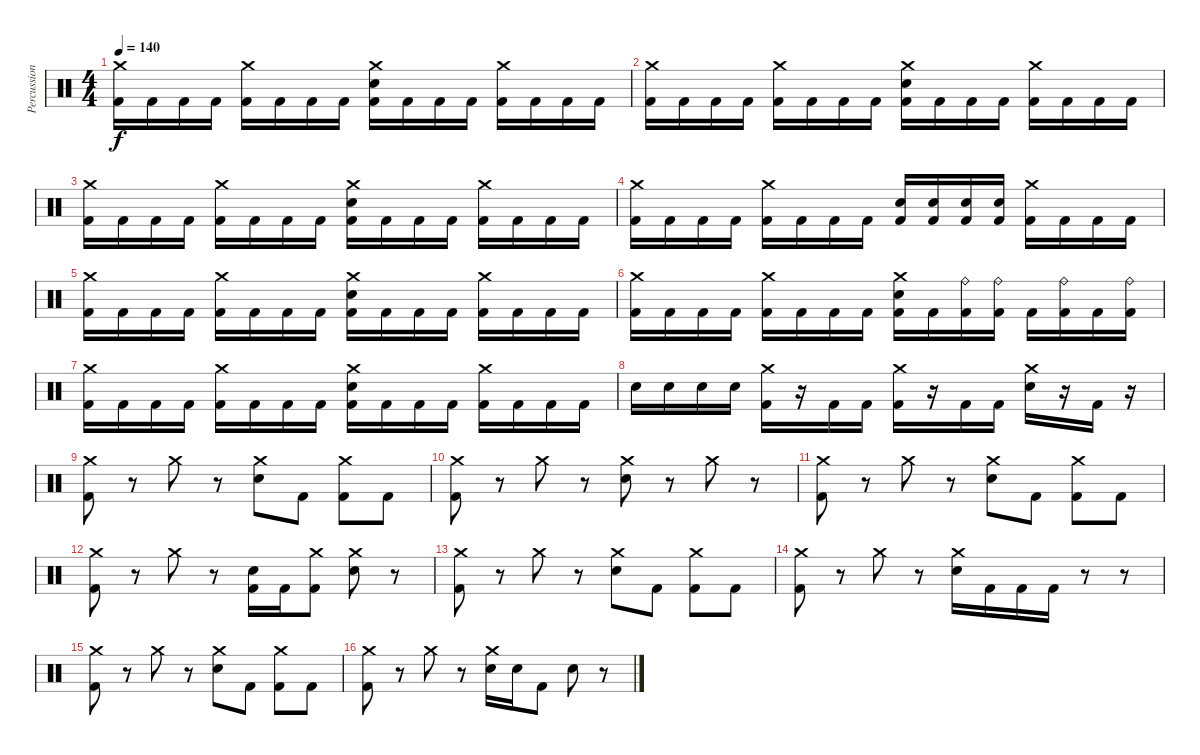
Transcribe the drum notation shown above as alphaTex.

\track ("Percussion" "Percussion") {instrument percussion}
\staff {score}
\articulation defaults
\ts (4 4)
\tempo 140
\clef neutral
\ks c
("Crash medium (hit)" "Kick (hit) 2").16{dy f} "Kick (hit) 2".16 "Kick (hit) 2".16 "Kick (hit) 2".16 ("Crash medium (hit)" "Kick (hit) 2").16 "Kick (hit) 2".16 "Kick (hit) 2".16 "Kick (hit) 2".16 ("Crash medium (hit)" "Electric Snare (hit)" "Kick (hit) 2").16 "Kick (hit) 2".16 "Kick (hit) 2".16 "Kick (hit) 2".16 ("Crash medium (hit)" "Kick (hit) 2").16 "Kick (hit) 2".16 "Kick (hit) 2".16 "Kick (hit) 2".16 |
("Crash medium (hit)" "Kick (hit) 2").16 "Kick (hit) 2".16 "Kick (hit) 2".16 "Kick (hit) 2".16 ("Crash medium (hit)" "Kick (hit) 2").16 "Kick (hit) 2".16 "Kick (hit) 2".16 "Kick (hit) 2".16 ("Crash medium (hit)" "Electric Snare (hit)" "Kick (hit) 2").16 "Kick (hit) 2".16 "Kick (hit) 2".16 "Kick (hit) 2".16 ("Crash medium (hit)" "Kick (hit) 2").16 "Kick (hit) 2".16 "Kick (hit) 2".16 "Kick (hit) 2".16 |
("Crash medium (hit)" "Kick (hit) 2").16 "Kick (hit) 2".16 "Kick (hit) 2".16 "Kick (hit) 2".16 ("Crash medium (hit)" "Kick (hit) 2").16 "Kick (hit) 2".16 "Kick (hit) 2".16 "Kick (hit) 2".16 ("Crash medium (hit)" "Electric Snare (hit)" "Kick (hit) 2").16 "Kick (hit) 2".16 "Kick (hit) 2".16 "Kick (hit) 2".16 ("Crash medium (hit)" "Kick (hit) 2").16 "Kick (hit) 2".16 "Kick (hit) 2".16 "Kick (hit) 2".16 |
("Crash medium (hit)" "Kick (hit) 2").16 "Kick (hit) 2".16 "Kick (hit) 2".16 "Kick (hit) 2".16 ("Crash medium (hit)" "Kick (hit) 2").16 "Kick (hit) 2".16 "Kick (hit) 2".16 "Kick (hit) 2".16 ("Electric Snare (hit)" "Kick (hit) 2").16 ("Electric Snare (hit)" "Kick (hit) 2").16 ("Electric Snare (hit)" "Kick (hit) 2").16 ("Electric Snare (hit)" "Kick (hit) 2").16 ("Crash medium (hit)" "Kick (hit) 2").16 "Kick (hit) 2".16 "Kick (hit) 2".16 "Kick (hit) 2".16 |
("Crash medium (hit)" "Kick (hit) 2").16 "Kick (hit) 2".16 "Kick (hit) 2".16 "Kick (hit) 2".16 ("Crash medium (hit)" "Kick (hit) 2").16 "Kick (hit) 2".16 "Kick (hit) 2".16 "Kick (hit) 2".16 ("Crash medium (hit)" "Electric Snare (hit)" "Kick (hit) 2").16 "Kick (hit) 2".16 "Kick (hit) 2".16 "Kick (hit) 2".16 ("Crash medium (hit)" "Kick (hit) 2").16 "Kick (hit) 2".16 "Kick (hit) 2".16 "Kick (hit) 2".16 |
("Crash medium (hit)" "Kick (hit) 2").16 "Kick (hit) 2".16 "Kick (hit) 2".16 "Kick (hit) 2".16 ("Crash medium (hit)" "Kick (hit) 2").16 "Kick (hit) 2".16 "Kick (hit) 2".16 "Kick (hit) 2".16 ("Crash medium (hit)" "Electric Snare (hit)" "Kick (hit) 2").16 "Kick (hit) 2".16 ("Ride (bell)" "Kick (hit) 2").16 ("Ride (bell)" "Kick (hit) 2").16 "Kick (hit) 2".16 ("Ride (bell)" "Kick (hit) 2").16 "Kick (hit) 2".16 ("Ride (bell)" "Kick (hit) 2").16 |
("Crash medium (hit)" "Kick (hit) 2").16 "Kick (hit) 2".16 "Kick (hit) 2".16 "Kick (hit) 2".16 ("Crash medium (hit)" "Kick (hit) 2").16 "Kick (hit) 2".16 "Kick (hit) 2".16 "Kick (hit) 2".16 ("Crash medium (hit)" "Electric Snare (hit)" "Kick (hit) 2").16 "Kick (hit) 2".16 "Kick (hit) 2".16 "Kick (hit) 2".16 ("Crash medium (hit)" "Kick (hit) 2").16 "Kick (hit) 2".16 "Kick (hit) 2".16 "Kick (hit) 2".16 |
"Electric Snare (hit)".16 "Electric Snare (hit)".16 "Electric Snare (hit)".16 "Electric Snare (hit)".16 ("Crash medium (hit)" "Kick (hit) 2").16 r.16 "Kick (hit) 2".16 "Kick (hit) 2".16 ("Crash medium (hit)" "Kick (hit) 2").16 r.16 "Kick (hit) 2".16 "Kick (hit) 2".16 ("Crash medium (hit)" "Electric Snare (hit)").16 r.16 "Kick (hit) 2".16 r.16 |
("Crash medium (hit)" "Kick (hit) 2").8 r.8 "Crash medium (hit)".8 r.8 ("Crash medium (hit)" "Electric Snare (hit)").8 "Kick (hit) 2".8 ("Crash medium (hit)" "Kick (hit) 2").8 "Kick (hit) 2".8 |
("Crash medium (hit)" "Kick (hit) 2").8 r.8 "Crash medium (hit)".8 r.8 ("Crash medium (hit)" "Electric Snare (hit)").8 r.8 "Crash medium (hit)".8 r.8 |
("Crash medium (hit)" "Kick (hit) 2").8 r.8 "Crash medium (hit)".8 r.8 ("Crash medium (hit)" "Electric Snare (hit)").8 "Kick (hit) 2".8 ("Crash medium (hit)" "Kick (hit) 2").8 "Kick (hit) 2".8 |
("Crash medium (hit)" "Kick (hit) 2").8 r.8 "Crash medium (hit)".8 r.8 ("Electric Snare (hit)" "Kick (hit) 2").16 "Kick (hit) 2".16 ("Crash medium (hit)" "Kick (hit) 2").8 ("Crash medium (hit)" "Electric Snare (hit)").8 r.8 |
("Crash medium (hit)" "Kick (hit) 2").8 r.8 "Crash medium (hit)".8 r.8 ("Crash medium (hit)" "Electric Snare (hit)").8 "Kick (hit) 2".8 ("Crash medium (hit)" "Kick (hit) 2").8 "Kick (hit) 2".8 |
("Crash medium (hit)" "Kick (hit) 2").8 r.8 "Crash medium (hit)".8 r.8 ("Crash medium (hit)" "Electric Snare (hit)").16 "Kick (hit) 2".16 "Kick (hit) 2".16 "Kick (hit) 2".16 r.8 r.8 |
("Crash medium (hit)" "Kick (hit) 2").8 r.8 "Crash medium (hit)".8 r.8 ("Crash medium (hit)" "Electric Snare (hit)").8 "Kick (hit) 2".8 ("Crash medium (hit)" "Kick (hit) 2").8 "Kick (hit) 2".8 |
("Crash medium (hit)" "Kick (hit) 2").8 r.8 "Crash medium (hit)".8 r.8 ("Crash medium (hit)" "Electric Snare (hit)").16 "Electric Snare (hit)".16 "Kick (hit) 2".8 "Electric Snare (hit)".8 r.8
